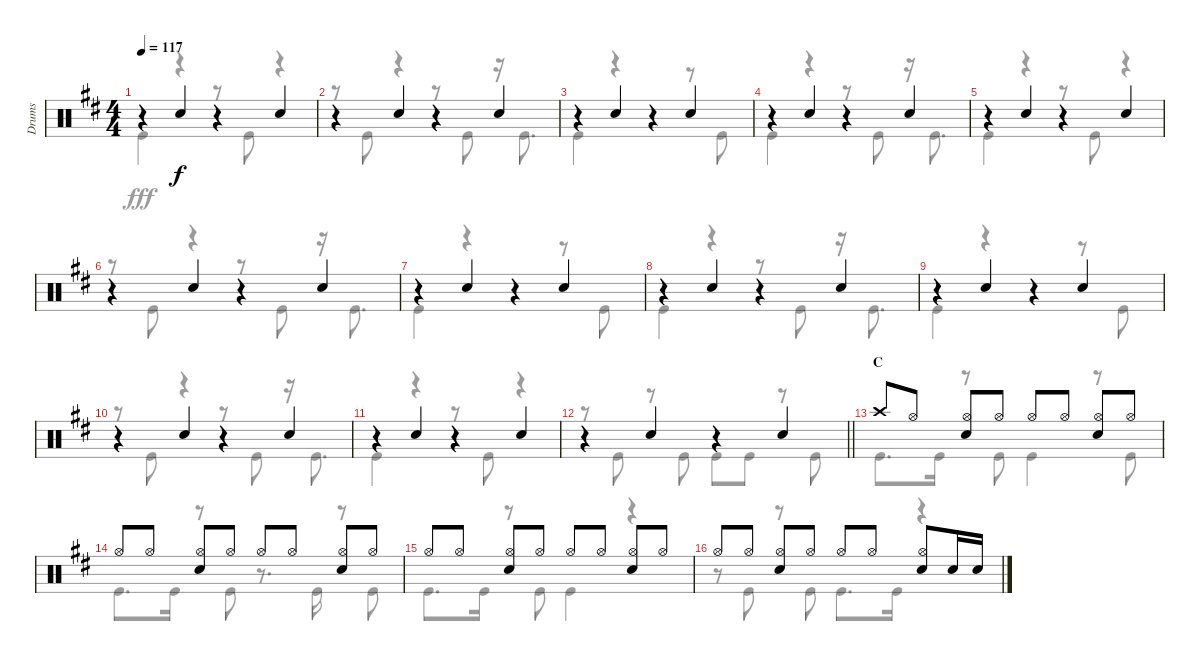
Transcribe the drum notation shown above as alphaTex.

\track ("Drums" "Drums") {instrument percussion}
\staff {score}
\articulation defaults
\voice
\ts (4 4)
\tempo 117
\clef neutral
\ks d
r.4{dy f} "Snare (hit) 2".4 r.4 "Snare (hit) 2".4 |
r.4 "Snare (hit) 2".4 r.4 "Snare (hit) 2".4 |
r.4 "Snare (hit) 2".4 r.4 "Snare (hit) 2".4 |
r.4 "Snare (hit) 2".4 r.4 "Snare (hit) 2".4 |
r.4 "Snare (hit) 2".4 r.4 "Snare (hit) 2".4 |
r.4 "Snare (hit) 2".4 r.4 "Snare (hit) 2".4 |
r.4 "Snare (hit) 2".4 r.4 "Snare (hit) 2".4 |
r.4 "Snare (hit) 2".4 r.4 "Snare (hit) 2".4 |
r.4 "Snare (hit) 2".4 r.4 "Snare (hit) 2".4 |
r.4 "Snare (hit) 2".4 r.4 "Snare (hit) 2".4 |
r.4 "Snare (hit) 2".4 r.4 "Snare (hit) 2".4 |
\barLineRight lightlight
r.4 "Snare (hit) 2".4 r.4 "Snare (hit) 2".4 |
\section ("" "C")
"Crash high (hit)".8 "Hi-Hat (open)".8 ("Hi-Hat (open)" "Snare (hit) 2").8 "Hi-Hat (open)".8 "Hi-Hat (open)".8 "Hi-Hat (open)".8 ("Hi-Hat (open)" "Snare (hit) 2").8 "Hi-Hat (open)".8 |
"Hi-Hat (open)".8 "Hi-Hat (open)".8 ("Hi-Hat (open)" "Snare (hit) 2").8 "Hi-Hat (open)".8 "Hi-Hat (open)".8 "Hi-Hat (open)".8 ("Hi-Hat (open)" "Snare (hit) 2").8 "Hi-Hat (open)".8 |
"Hi-Hat (open)".8 "Hi-Hat (open)".8 ("Hi-Hat (open)" "Snare (hit) 2").8 "Hi-Hat (open)".8 "Hi-Hat (open)".8 "Hi-Hat (open)".8 ("Hi-Hat (open)" "Snare (hit) 2").8 "Hi-Hat (open)".8 |
"Hi-Hat (open)".8 "Hi-Hat (open)".8 ("Hi-Hat (open)" "Snare (hit) 2").8 "Hi-Hat (open)".8 "Hi-Hat (open)".8 "Hi-Hat (open)".8 ("Hi-Hat (open)" "Snare (hit) 2").8 "Snare (hit) 2".16 "Snare (hit) 2".16
\voice
\clef neutral
\ottava regular
\simile none
\ks d "Kick (hit)".4{dy fff}
r.4 r.8 "Kick (hit)".8 r.4 |
r.8 "Kick (hit)".8 r.4 r.8 "Kick (hit)".8 r.16 "Kick (hit)".8{d} |
"Kick (hit)".4 r.4 r.4 r.8 "Kick (hit)".8 |
"Kick (hit)".4 r.4 r.8 "Kick (hit)".8 r.16 "Kick (hit)".8{d} |
"Kick (hit)".4 r.4 r.8 "Kick (hit)".8 r.4 |
r.8 "Kick (hit)".8 r.4 r.8 "Kick (hit)".8 r.16 "Kick (hit)".8{d} |
"Kick (hit)".4 r.4 r.4 r.8 "Kick (hit)".8 |
"Kick (hit)".4 r.4 r.8 "Kick (hit)".8 r.16 "Kick (hit)".8{d} |
"Kick (hit)".4 r.4 r.4 r.8 "Kick (hit)".8 |
r.8 "Kick (hit)".8 r.4 r.8 "Kick (hit)".8 r.16 "Kick (hit)".8{d} |
"Kick (hit)".4 r.4 r.8 "Kick (hit)".8 r.4 |
\barLineRight lightlight
r.8 "Kick (hit)".8 r.8 "Kick (hit)".8 "Kick (hit)".8 "Kick (hit)".8 r.8 "Kick (hit)".8 |
"Kick (hit)".8{d} "Kick (hit)".16 r.8 "Kick (hit)".8 "Kick (hit)".4 r.8 "Kick (hit)".8 |
"Kick (hit)".8{d} "Kick (hit)".16 r.8 "Kick (hit)".8 r.8{d} "Kick (hit)".16 r.8 "Kick (hit)".8 |
"Kick (hit)".8{d} "Kick (hit)".16 r.8 "Kick (hit)".8 "Kick (hit)".4 r.4 |
r.8 "Kick (hit)".8 r.8 "Kick (hit)".8 "Kick (hit)".8{d} "Kick (hit)".16 r.4
